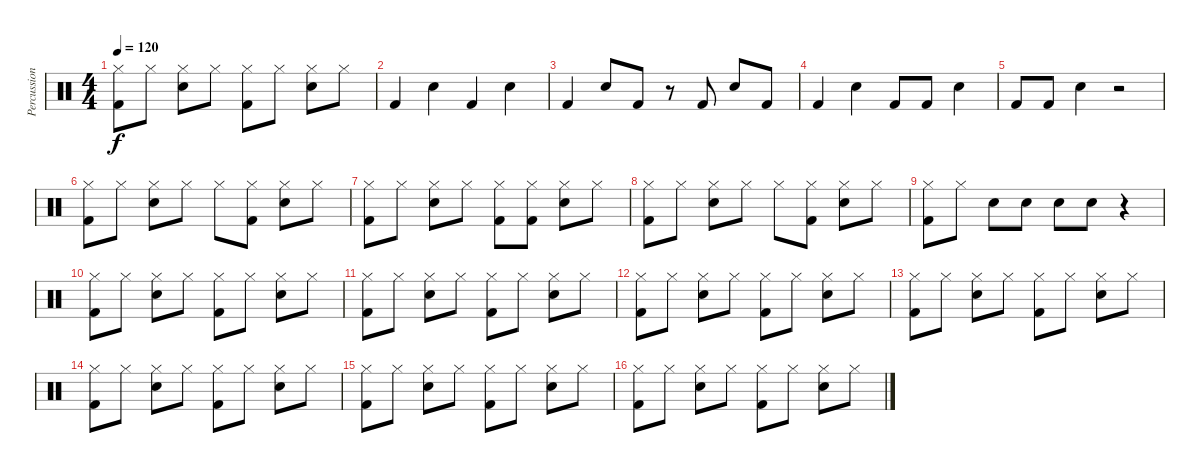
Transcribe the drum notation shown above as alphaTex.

\track ("Percussioni" "Percussion") {instrument percussion}
\staff {score}
\articulation defaults
\ts (4 4)
\tempo 120
\clef neutral
\ks c
("Hi-Hat (closed)" "Kick (hit) 2").8{dy f} "Hi-Hat (closed)".8 ("Hi-Hat (closed)" "Snare (hit) 2").8 "Hi-Hat (closed)".8 ("Hi-Hat (closed)" "Kick (hit) 2").8 "Hi-Hat (closed)".8 ("Hi-Hat (closed)" "Snare (hit) 2").8 "Hi-Hat (closed)".8 |
"Kick (hit) 2".4 "Snare (hit) 2".4 "Kick (hit) 2".4 "Snare (hit) 2".4 |
"Kick (hit) 2".4 "Snare (hit) 2".8 "Kick (hit) 2".8 r.8 "Kick (hit) 2".8 "Snare (hit) 2".8 "Kick (hit) 2".8 |
"Kick (hit) 2".4 "Snare (hit) 2".4 "Kick (hit) 2".8 "Kick (hit) 2".8 "Snare (hit) 2".4 |
"Kick (hit) 2".8 "Kick (hit) 2".8 "Snare (hit) 2".4 r.2 |
("Hi-Hat (closed)" "Kick (hit) 2").8 "Hi-Hat (closed)".8 ("Hi-Hat (closed)" "Snare (hit) 2").8 "Hi-Hat (closed)".8 "Hi-Hat (closed)".8 ("Hi-Hat (closed)" "Kick (hit) 2").8 ("Hi-Hat (closed)" "Snare (hit) 2").8 "Hi-Hat (closed)".8 |
("Hi-Hat (closed)" "Kick (hit) 2").8 "Hi-Hat (closed)".8 ("Hi-Hat (closed)" "Snare (hit) 2").8 "Hi-Hat (closed)".8 ("Hi-Hat (closed)" "Kick (hit) 2").8 ("Hi-Hat (closed)" "Kick (hit) 2").8 ("Hi-Hat (closed)" "Snare (hit) 2").8 "Hi-Hat (closed)".8 |
("Hi-Hat (closed)" "Kick (hit) 2").8 "Hi-Hat (closed)".8 ("Hi-Hat (closed)" "Snare (hit) 2").8 "Hi-Hat (closed)".8 "Hi-Hat (closed)".8 ("Hi-Hat (closed)" "Kick (hit) 2").8 ("Hi-Hat (closed)" "Snare (hit) 2").8 "Hi-Hat (closed)".8 |
("Hi-Hat (closed)" "Kick (hit) 2").8 "Hi-Hat (closed)".8 "Snare (hit) 2".8 "Snare (hit) 2".8 "Snare (hit) 2".8 "Snare (hit) 2".8 r.4 |
("Hi-Hat (closed)" "Kick (hit) 2").8 "Hi-Hat (closed)".8 ("Hi-Hat (closed)" "Snare (hit) 2").8 "Hi-Hat (closed)".8 ("Hi-Hat (closed)" "Kick (hit) 2").8 "Hi-Hat (closed)".8 ("Hi-Hat (closed)" "Snare (hit) 2").8 "Hi-Hat (closed)".8 |
("Hi-Hat (closed)" "Kick (hit) 2").8 "Hi-Hat (closed)".8 ("Hi-Hat (closed)" "Snare (hit) 2").8 "Hi-Hat (closed)".8 ("Hi-Hat (closed)" "Kick (hit) 2").8 "Hi-Hat (closed)".8 ("Hi-Hat (closed)" "Snare (hit) 2").8 "Hi-Hat (closed)".8 |
("Hi-Hat (closed)" "Kick (hit) 2").8 "Hi-Hat (closed)".8 ("Hi-Hat (closed)" "Snare (hit) 2").8 "Hi-Hat (closed)".8 ("Hi-Hat (closed)" "Kick (hit) 2").8 "Hi-Hat (closed)".8 ("Hi-Hat (closed)" "Snare (hit) 2").8 "Hi-Hat (closed)".8 |
("Hi-Hat (closed)" "Kick (hit) 2").8 "Hi-Hat (closed)".8 ("Hi-Hat (closed)" "Snare (hit) 2").8 "Hi-Hat (closed)".8 ("Hi-Hat (closed)" "Kick (hit) 2").8 "Hi-Hat (closed)".8 ("Hi-Hat (closed)" "Snare (hit) 2").8 "Hi-Hat (closed)".8 |
("Hi-Hat (closed)" "Kick (hit) 2").8 "Hi-Hat (closed)".8 ("Hi-Hat (closed)" "Snare (hit) 2").8 "Hi-Hat (closed)".8 ("Hi-Hat (closed)" "Kick (hit) 2").8 "Hi-Hat (closed)".8 ("Hi-Hat (closed)" "Snare (hit) 2").8 "Hi-Hat (closed)".8 |
("Hi-Hat (closed)" "Kick (hit) 2").8 "Hi-Hat (closed)".8 ("Hi-Hat (closed)" "Snare (hit) 2").8 "Hi-Hat (closed)".8 ("Hi-Hat (closed)" "Kick (hit) 2").8 "Hi-Hat (closed)".8 ("Hi-Hat (closed)" "Snare (hit) 2").8 "Hi-Hat (closed)".8 |
("Hi-Hat (closed)" "Kick (hit) 2").8 "Hi-Hat (closed)".8 ("Hi-Hat (closed)" "Snare (hit) 2").8 "Hi-Hat (closed)".8 ("Hi-Hat (closed)" "Kick (hit) 2").8 "Hi-Hat (closed)".8 ("Hi-Hat (closed)" "Snare (hit) 2").8 "Hi-Hat (closed)".8
